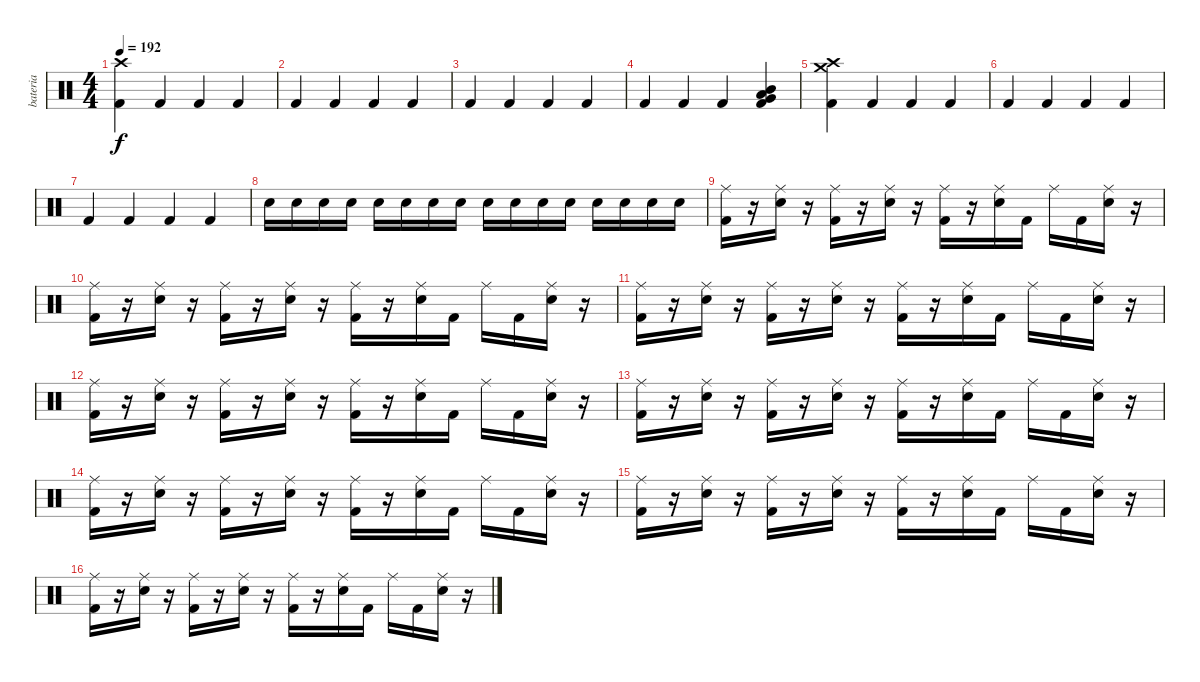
\track ("bateria" "bateria") {instrument percussion}
\staff {score}
\articulation defaults
\ts (4 4)
\tempo 192
\clef neutral
\ks c
("Crash high (hit)" "Kick (hit) 2").4{dy f} "Kick (hit) 2".4 "Kick (hit) 2".4 "Kick (hit) 2".4 |
"Kick (hit) 2".4 "Kick (hit) 2".4 "Kick (hit) 2".4 "Kick (hit) 2".4 |
"Kick (hit) 2".4 "Kick (hit) 2".4 "Kick (hit) 2".4 "Kick (hit) 2".4 |
"Kick (hit) 2".4 "Kick (hit) 2".4 "Kick (hit) 2".4 ("Very Low Tom (hit)" "Low Tom (hit)" "Mid Tom (hit)" "Kick (hit) 2").4 |
("Crash medium (hit)" "Crash high (hit)" "Kick (hit) 2").4 "Kick (hit) 2".4 "Kick (hit) 2".4 "Kick (hit) 2".4 |
"Kick (hit) 2".4 "Kick (hit) 2".4 "Kick (hit) 2".4 "Kick (hit) 2".4 |
"Kick (hit) 2".4 "Kick (hit) 2".4 "Kick (hit) 2".4 "Kick (hit) 2".4 |
"Snare (hit) 2".16 "Snare (hit) 2".16 "Snare (hit) 2".16 "Snare (hit) 2".16 "Snare (hit) 2".16 "Snare (hit) 2".16 "Snare (hit) 2".16 "Snare (hit) 2".16 "Snare (hit) 2".16 "Snare (hit) 2".16 "Snare (hit) 2".16 "Snare (hit) 2".16 "Snare (hit) 2".16 "Snare (hit) 2".16 "Snare (hit) 2".16 "Snare (hit) 2".16 |
("Ride (middle)" "Kick (hit) 2").16 r.16 ("Ride (middle)" "Snare (hit) 2").16 r.16 ("Ride (middle)" "Kick (hit) 2").16 r.16 ("Ride (middle)" "Snare (hit) 2").16 r.16 ("Ride (middle)" "Kick (hit) 2").16 r.16 ("Ride (middle)" "Snare (hit) 2").16 "Kick (hit) 2".16 "Ride (middle)".16 "Kick (hit) 2".16 ("Ride (middle)" "Snare (hit) 2").16 r.16 |
("Ride (middle)" "Kick (hit) 2").16 r.16 ("Ride (middle)" "Snare (hit) 2").16 r.16 ("Ride (middle)" "Kick (hit) 2").16 r.16 ("Ride (middle)" "Snare (hit) 2").16 r.16 ("Ride (middle)" "Kick (hit) 2").16 r.16 ("Ride (middle)" "Snare (hit) 2").16 "Kick (hit) 2".16 "Ride (middle)".16 "Kick (hit) 2".16 ("Ride (middle)" "Snare (hit) 2").16 r.16 |
("Ride (middle)" "Kick (hit) 2").16 r.16 ("Ride (middle)" "Snare (hit) 2").16 r.16 ("Ride (middle)" "Kick (hit) 2").16 r.16 ("Ride (middle)" "Snare (hit) 2").16 r.16 ("Ride (middle)" "Kick (hit) 2").16 r.16 ("Ride (middle)" "Snare (hit) 2").16 "Kick (hit) 2".16 "Ride (middle)".16 "Kick (hit) 2".16 ("Ride (middle)" "Snare (hit) 2").16 r.16 |
("Ride (middle)" "Kick (hit) 2").16 r.16 ("Ride (middle)" "Snare (hit) 2").16 r.16 ("Ride (middle)" "Kick (hit) 2").16 r.16 ("Ride (middle)" "Snare (hit) 2").16 r.16 ("Ride (middle)" "Kick (hit) 2").16 r.16 ("Ride (middle)" "Snare (hit) 2").16 "Kick (hit) 2".16 "Ride (middle)".16 "Kick (hit) 2".16 ("Ride (middle)" "Snare (hit) 2").16 r.16 |
("Ride (middle)" "Kick (hit) 2").16 r.16 ("Ride (middle)" "Snare (hit) 2").16 r.16 ("Ride (middle)" "Kick (hit) 2").16 r.16 ("Ride (middle)" "Snare (hit) 2").16 r.16 ("Ride (middle)" "Kick (hit) 2").16 r.16 ("Ride (middle)" "Snare (hit) 2").16 "Kick (hit) 2".16 "Ride (middle)".16 "Kick (hit) 2".16 ("Ride (middle)" "Snare (hit) 2").16 r.16 |
("Ride (middle)" "Kick (hit) 2").16 r.16 ("Ride (middle)" "Snare (hit) 2").16 r.16 ("Ride (middle)" "Kick (hit) 2").16 r.16 ("Ride (middle)" "Snare (hit) 2").16 r.16 ("Ride (middle)" "Kick (hit) 2").16 r.16 ("Ride (middle)" "Snare (hit) 2").16 "Kick (hit) 2".16 "Ride (middle)".16 "Kick (hit) 2".16 ("Ride (middle)" "Snare (hit) 2").16 r.16 |
("Ride (middle)" "Kick (hit) 2").16 r.16 ("Ride (middle)" "Snare (hit) 2").16 r.16 ("Ride (middle)" "Kick (hit) 2").16 r.16 ("Ride (middle)" "Snare (hit) 2").16 r.16 ("Ride (middle)" "Kick (hit) 2").16 r.16 ("Ride (middle)" "Snare (hit) 2").16 "Kick (hit) 2".16 "Ride (middle)".16 "Kick (hit) 2".16 ("Ride (middle)" "Snare (hit) 2").16 r.16 |
("Ride (middle)" "Kick (hit) 2").16 r.16 ("Ride (middle)" "Snare (hit) 2").16 r.16 ("Ride (middle)" "Kick (hit) 2").16 r.16 ("Ride (middle)" "Snare (hit) 2").16 r.16 ("Ride (middle)" "Kick (hit) 2").16 r.16 ("Ride (middle)" "Snare (hit) 2").16 "Kick (hit) 2".16 "Ride (middle)".16 "Kick (hit) 2".16 ("Ride (middle)" "Snare (hit) 2").16 r.16
